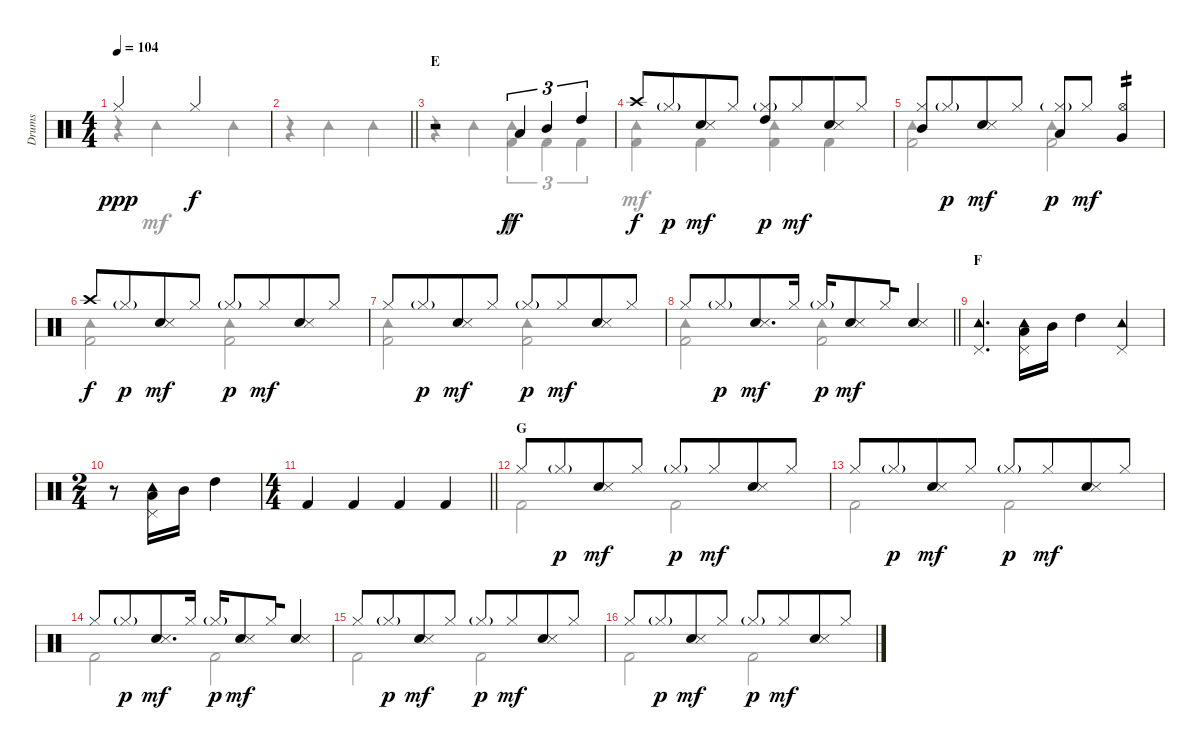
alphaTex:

\track ("Drums" "Drums") {instrument percussion}
\staff {score}
\articulation defaults
\voice
\ts (4 4)
\tempo 104
\clef neutral
\ks c "Hi-Hat (closed)".2{dy ppp} "Hi-Hat (closed)".2{dy f}
|
\barLineRight lightlight
|
\section ("" "E")
r.2 "Low Tom (hit)".4{tu (3 2) dy ff} "Mid Tom (hit)".4{tu (3 2)} "High Tom (hit)".4{tu (3 2)} |
"Crash high (hit)".8{dy f} "Hi-Hat (closed)"{g}.8{dy p beam merge} ("Electric Snare (hit)" "Snare (side stick) 3").8{dy mf} "Hi-Hat (closed)".8 ("Hi-Hat (closed)"{g} "High Tom (hit)").8{dy p} "Hi-Hat (closed)".8{dy mf beam merge} ("Electric Snare (hit)" "Snare (side stick) 3").8 "Hi-Hat (closed)".8 |
("Hi-Hat (closed)" "Mid Tom (hit)").8 "Hi-Hat (closed)"{g}.8{dy p beam merge} ("Electric Snare (hit)" "Snare (side stick) 3").8{dy mf} "Hi-Hat (closed)".8 ("Hi-Hat (closed)"{g} "Low Tom (hit)").8{dy p} "Hi-Hat (closed)".8{dy mf} ("Hi-Hat (open)" "Very Low Tom (hit)").4{tp 2} |
"Crash high (hit)".8{dy f} "Hi-Hat (closed)"{g}.8{dy p beam merge} ("Electric Snare (hit)" "Snare (side stick) 3").8{dy mf} "Hi-Hat (closed)".8 "Hi-Hat (closed)"{g}.8{dy p} "Hi-Hat (closed)".8{dy mf beam merge} ("Electric Snare (hit)" "Snare (side stick) 3").8 "Hi-Hat (closed)".8 |
"Hi-Hat (closed)".8 "Hi-Hat (closed)"{g}.8{dy p beam merge} ("Electric Snare (hit)" "Snare (side stick) 3").8{dy mf} "Hi-Hat (closed)".8 "Hi-Hat (closed)"{g}.8{dy p} "Hi-Hat (closed)".8{dy mf beam merge} ("Electric Snare (hit)" "Snare (side stick) 3").8 "Hi-Hat (closed)".8 |
\barLineRight lightlight "Hi-Hat (closed)".8 "Hi-Hat (closed)"{g}.8{dy p beam merge}
("Electric Snare (hit)" "Snare (side stick) 3").8{d dy mf} "Hi-Hat (closed)".16 "Hi-Hat (closed)"{g}.16{dy p beam merge} ("Electric Snare (hit)" "Snare (side stick) 3").8{dy mf} "Hi-Hat (closed)".16{beam merge} ("Electric Snare (hit)" "Snare (side stick) 3").4 |
\section ("" "F")
("Pedal Hi-Hat (hit)" "Tambourine (hit)").4{d} ("Low Tom (hit)" "Pedal Hi-Hat (hit)" "Tambourine (hit)").16 "Mid Tom (hit)".16 "High Tom (hit)".4 ("Pedal Hi-Hat (hit)" "Tambourine (hit)").4 |
\ts (2 4)
r.8 ("Low Tom (hit)" "Pedal Hi-Hat (hit)" "Tambourine (hit)").16 "Mid Tom (hit)".16 "High Tom (hit)".4 |
\ts (4 4)
\barLineRight lightlight "Kick (hit) 2".4 "Kick (hit) 2".4 "Kick (hit) 2".4 "Kick (hit) 2".4
|
\section ("" "G")
"Hi-Hat (closed)".8 "Hi-Hat (closed)"{g}.8{dy p beam merge} ("Electric Snare (hit)" "Snare (side stick) 3").8{dy mf} "Hi-Hat (closed)".8 "Hi-Hat (closed)"{g}.8{dy p} "Hi-Hat (closed)".8{dy mf beam merge} ("Electric Snare (hit)" "Snare (side stick) 3").8 "Hi-Hat (closed)".8 |
"Hi-Hat (closed)".8 "Hi-Hat (closed)"{g}.8{dy p beam merge} ("Electric Snare (hit)" "Snare (side stick) 3").8{dy mf} "Hi-Hat (closed)".8 "Hi-Hat (closed)"{g}.8{dy p} "Hi-Hat (closed)".8{dy mf beam merge} ("Electric Snare (hit)" "Snare (side stick) 3").8 "Hi-Hat (closed)".8 |
"Hi-Hat (closed)".8 "Hi-Hat (closed)"{g}.8{dy p beam merge} ("Electric Snare (hit)" "Snare (side stick) 3").8{d dy mf} "Hi-Hat (closed)".16 "Hi-Hat (closed)"{g}.16{dy p beam merge} ("Electric Snare (hit)" "Snare (side stick) 3").8{dy mf} "Hi-Hat (closed)".16{beam merge} ("Electric Snare (hit)" "Snare (side stick) 3").4 |
"Hi-Hat (closed)".8 "Hi-Hat (closed)"{g}.8{dy p beam merge} ("Electric Snare (hit)" "Snare (side stick) 3").8{dy mf} "Hi-Hat (closed)".8 "Hi-Hat (closed)"{g}.8{dy p} "Hi-Hat (closed)".8{dy mf beam merge} ("Electric Snare (hit)" "Snare (side stick) 3").8 "Hi-Hat (closed)".8 |
"Hi-Hat (closed)".8 "Hi-Hat (closed)"{g}.8{dy p beam merge} ("Electric Snare (hit)" "Snare (side stick) 3").8{dy mf} "Hi-Hat (closed)".8 "Hi-Hat (closed)"{g}.8{dy p} "Hi-Hat (closed)".8{dy mf beam merge} ("Electric Snare (hit)" "Snare (side stick) 3").8 "Hi-Hat (closed)".8
\voice
\clef neutral
\ottava regular
\simile none
\ks c
r.4{dy mf} "Tambourine (hit)".2 "Tambourine (hit)".4 |
\barLineRight lightlight
r.4 "Tambourine (hit)".2 "Tambourine (hit)".4 |
r.4 "Tambourine (hit)".4 ("Tambourine (hit)" "Kick (hit) 2").4{tu (3 2) dy f} "Kick (hit) 2".4{tu (3 2)} "Kick (hit) 2".4{tu (3 2)} |
("Tambourine (hit)" "Kick (hit) 2").4{dy mf} "Kick (hit) 2".4 ("Tambourine (hit)" "Kick (hit) 2").4 "Kick (hit) 2".4 |
("Tambourine (hit)" "Kick (hit) 2").2 ("Tambourine (hit)" "Kick (hit) 2").2 |
("Tambourine (hit)" "Kick (hit) 2").2 ("Tambourine (hit)" "Kick (hit) 2").2 |
("Tambourine (hit)" "Kick (hit) 2").2 ("Tambourine (hit)" "Kick (hit) 2").2 |
\barLineRight lightlight
("Tambourine (hit)" "Kick (hit) 2").2 ("Tambourine (hit)" "Kick (hit) 2").2 |
|
|
\barLineRight lightlight
|
"Kick (hit) 2".2 "Kick (hit) 2".2 |
"Kick (hit) 2".2 "Kick (hit) 2".2 |
"Kick (hit) 2".2 "Kick (hit) 2".2 |
"Kick (hit) 2".2 "Kick (hit) 2".2 |
"Kick (hit) 2".2 "Kick (hit) 2".2
